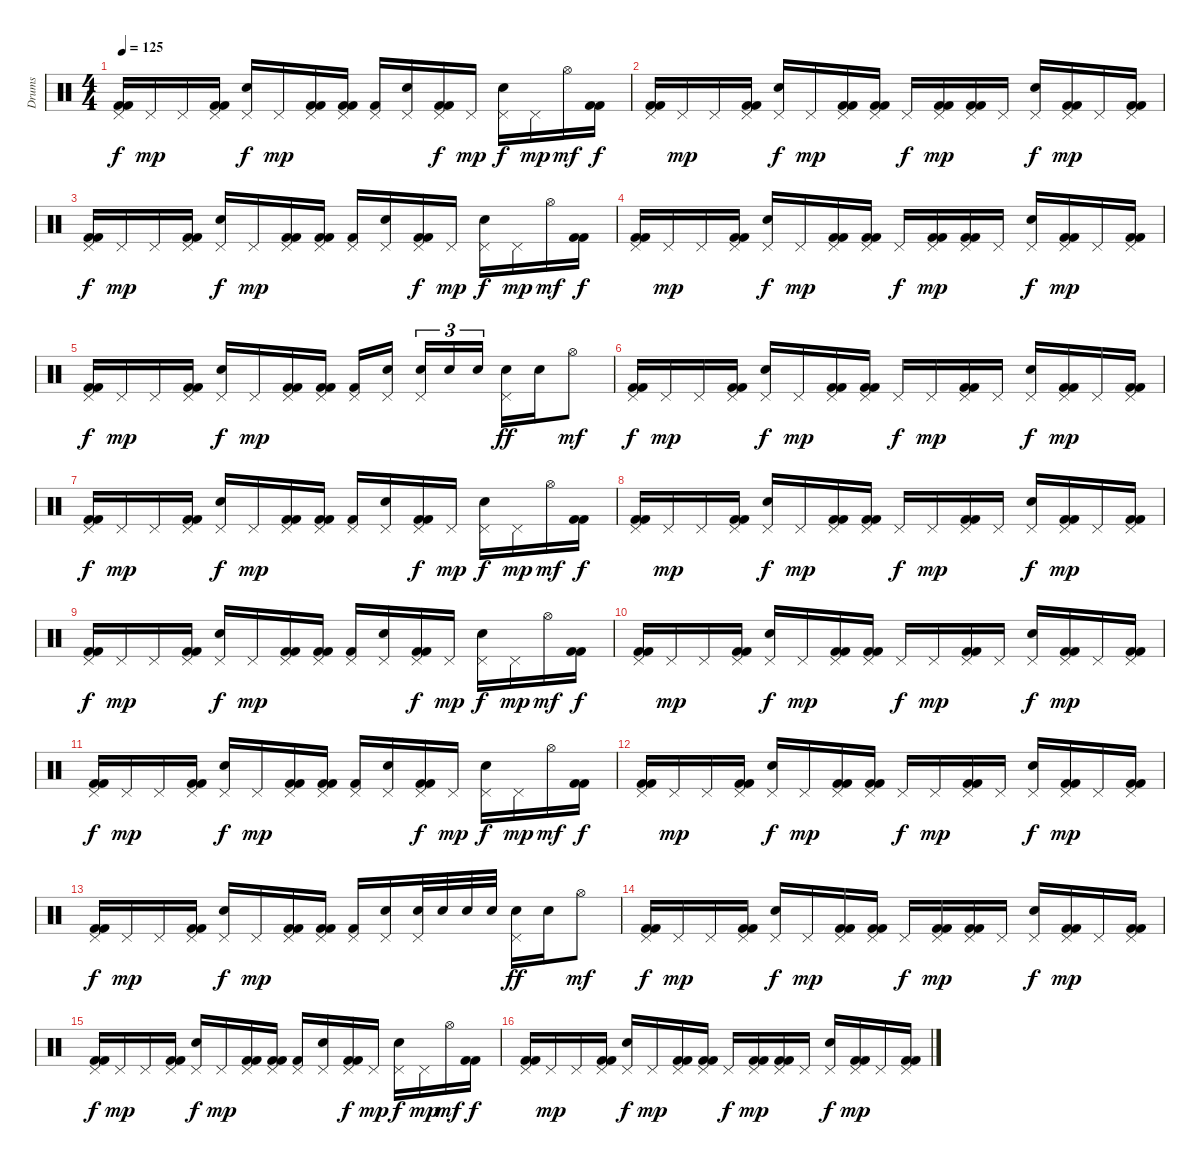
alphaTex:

\track ("Drums" "Drums") {instrument percussion}
\staff {score}
\articulation defaults
\ts (4 4)
\tempo 125
\clef neutral
\ks c
("Pedal Hi-Hat (hit)" "Kick (hit) 2" "Kick (hit) 2").16{dy f} "Pedal Hi-Hat (hit)".16{dy mp} "Pedal Hi-Hat (hit)".16 ("Pedal Hi-Hat (hit)" "Kick (hit) 2" "Kick (hit) 2").16 ("Pedal Hi-Hat (hit)" "Electric Snare (hit)").16{dy f} "Pedal Hi-Hat (hit)".16{dy mp} ("Pedal Hi-Hat (hit)" "Kick (hit) 2" "Kick (hit) 2").16 ("Pedal Hi-Hat (hit)" "Kick (hit) 2" "Kick (hit) 2").16 ("Pedal Hi-Hat (hit)" "Kick (hit) 2").16 ("Pedal Hi-Hat (hit)" "Electric Snare (hit)").16 ("Pedal Hi-Hat (hit)" "Kick (hit) 2" "Kick (hit) 2").16{dy f} "Pedal Hi-Hat (hit)".16{dy mp} ("Pedal Hi-Hat (hit)" "Electric Snare (hit)").16{dy f} "Pedal Hi-Hat (hit)".16{dy mp} "Hi-Hat (open)".16{dy mf} ("Kick (hit) 2" "Kick (hit) 2").16{dy f} |
("Pedal Hi-Hat (hit)" "Kick (hit) 2" "Kick (hit) 2").16 "Pedal Hi-Hat (hit)".16{dy mp} "Pedal Hi-Hat (hit)".16 ("Pedal Hi-Hat (hit)" "Kick (hit) 2" "Kick (hit) 2").16 ("Pedal Hi-Hat (hit)" "Electric Snare (hit)").16{dy f} "Pedal Hi-Hat (hit)".16{dy mp} ("Pedal Hi-Hat (hit)" "Kick (hit) 2" "Kick (hit) 2").16 ("Pedal Hi-Hat (hit)" "Kick (hit) 2" "Kick (hit) 2").16 "Pedal Hi-Hat (hit)".16{dy f} ("Pedal Hi-Hat (hit)" "Kick (hit) 2" "Kick (hit) 2").16{dy mp} ("Pedal Hi-Hat (hit)" "Kick (hit) 2" "Kick (hit) 2").16 "Pedal Hi-Hat (hit)".16 ("Pedal Hi-Hat (hit)" "Electric Snare (hit)").16{dy f} ("Pedal Hi-Hat (hit)" "Kick (hit) 2" "Kick (hit) 2").16{dy mp} "Pedal Hi-Hat (hit)".16 ("Pedal Hi-Hat (hit)" "Kick (hit) 2" "Kick (hit) 2").16 |
("Pedal Hi-Hat (hit)" "Kick (hit) 2" "Kick (hit) 2").16{dy f} "Pedal Hi-Hat (hit)".16{dy mp} "Pedal Hi-Hat (hit)".16 ("Pedal Hi-Hat (hit)" "Kick (hit) 2" "Kick (hit) 2").16 ("Pedal Hi-Hat (hit)" "Electric Snare (hit)").16{dy f} "Pedal Hi-Hat (hit)".16{dy mp} ("Pedal Hi-Hat (hit)" "Kick (hit) 2" "Kick (hit) 2").16 ("Pedal Hi-Hat (hit)" "Kick (hit) 2" "Kick (hit) 2").16 ("Pedal Hi-Hat (hit)" "Kick (hit) 2").16 ("Pedal Hi-Hat (hit)" "Electric Snare (hit)").16 ("Pedal Hi-Hat (hit)" "Kick (hit) 2" "Kick (hit) 2").16{dy f} "Pedal Hi-Hat (hit)".16{dy mp} ("Pedal Hi-Hat (hit)" "Electric Snare (hit)").16{dy f} "Pedal Hi-Hat (hit)".16{dy mp} "Hi-Hat (open)".16{dy mf} ("Kick (hit) 2" "Kick (hit) 2").16{dy f} |
("Pedal Hi-Hat (hit)" "Kick (hit) 2" "Kick (hit) 2").16 "Pedal Hi-Hat (hit)".16{dy mp} "Pedal Hi-Hat (hit)".16 ("Pedal Hi-Hat (hit)" "Kick (hit) 2" "Kick (hit) 2").16 ("Pedal Hi-Hat (hit)" "Electric Snare (hit)").16{dy f} "Pedal Hi-Hat (hit)".16{dy mp} ("Pedal Hi-Hat (hit)" "Kick (hit) 2" "Kick (hit) 2").16 ("Pedal Hi-Hat (hit)" "Kick (hit) 2" "Kick (hit) 2").16 "Pedal Hi-Hat (hit)".16{dy f} ("Pedal Hi-Hat (hit)" "Kick (hit) 2" "Kick (hit) 2").16{dy mp} ("Pedal Hi-Hat (hit)" "Kick (hit) 2" "Kick (hit) 2").16 "Pedal Hi-Hat (hit)".16 ("Pedal Hi-Hat (hit)" "Electric Snare (hit)").16{dy f} ("Pedal Hi-Hat (hit)" "Kick (hit) 2" "Kick (hit) 2").16{dy mp} "Pedal Hi-Hat (hit)".16 ("Pedal Hi-Hat (hit)" "Kick (hit) 2" "Kick (hit) 2").16 |
("Pedal Hi-Hat (hit)" "Kick (hit) 2" "Kick (hit) 2").16{dy f} "Pedal Hi-Hat (hit)".16{dy mp} "Pedal Hi-Hat (hit)".16 ("Pedal Hi-Hat (hit)" "Kick (hit) 2" "Kick (hit) 2").16 ("Pedal Hi-Hat (hit)" "Electric Snare (hit)").16{dy f} "Pedal Hi-Hat (hit)".16{dy mp} ("Pedal Hi-Hat (hit)" "Kick (hit) 2" "Kick (hit) 2").16 ("Pedal Hi-Hat (hit)" "Kick (hit) 2" "Kick (hit) 2").16 ("Pedal Hi-Hat (hit)" "Kick (hit) 2").16 ("Pedal Hi-Hat (hit)" "Electric Snare (hit)").16{beam splitsecondary} ("Pedal Hi-Hat (hit)" "Electric Snare (hit)").16{tu (3 2)} "Electric Snare (hit)".16{tu (3 2)} "Electric Snare (hit)".16{tu (3 2)} ("Pedal Hi-Hat (hit)" "Electric Snare (hit)").16{dy ff} "Electric Snare (hit)".16 "Hi-Hat (open)".8{dy mf} |
("Pedal Hi-Hat (hit)" "Kick (hit) 2" "Kick (hit) 2").16{dy f} "Pedal Hi-Hat (hit)".16{dy mp} "Pedal Hi-Hat (hit)".16 ("Pedal Hi-Hat (hit)" "Kick (hit) 2" "Kick (hit) 2").16 ("Pedal Hi-Hat (hit)" "Electric Snare (hit)").16{dy f} "Pedal Hi-Hat (hit)".16{dy mp} ("Pedal Hi-Hat (hit)" "Kick (hit) 2" "Kick (hit) 2").16 ("Pedal Hi-Hat (hit)" "Kick (hit) 2" "Kick (hit) 2").16 "Pedal Hi-Hat (hit)".16{dy f} "Pedal Hi-Hat (hit)".16{dy mp} ("Pedal Hi-Hat (hit)" "Kick (hit) 2" "Kick (hit) 2").16 "Pedal Hi-Hat (hit)".16 ("Pedal Hi-Hat (hit)" "Electric Snare (hit)").16{dy f} ("Pedal Hi-Hat (hit)" "Kick (hit) 2" "Kick (hit) 2").16{dy mp} "Pedal Hi-Hat (hit)".16 ("Pedal Hi-Hat (hit)" "Kick (hit) 2" "Kick (hit) 2").16 |
("Pedal Hi-Hat (hit)" "Kick (hit) 2" "Kick (hit) 2").16{dy f} "Pedal Hi-Hat (hit)".16{dy mp} "Pedal Hi-Hat (hit)".16 ("Pedal Hi-Hat (hit)" "Kick (hit) 2" "Kick (hit) 2").16 ("Pedal Hi-Hat (hit)" "Electric Snare (hit)").16{dy f} "Pedal Hi-Hat (hit)".16{dy mp} ("Pedal Hi-Hat (hit)" "Kick (hit) 2" "Kick (hit) 2").16 ("Pedal Hi-Hat (hit)" "Kick (hit) 2" "Kick (hit) 2").16 ("Pedal Hi-Hat (hit)" "Kick (hit) 2").16 ("Pedal Hi-Hat (hit)" "Electric Snare (hit)").16 ("Pedal Hi-Hat (hit)" "Kick (hit) 2" "Kick (hit) 2").16{dy f} "Pedal Hi-Hat (hit)".16{dy mp} ("Pedal Hi-Hat (hit)" "Electric Snare (hit)").16{dy f} "Pedal Hi-Hat (hit)".16{dy mp} "Hi-Hat (open)".16{dy mf} ("Kick (hit) 2" "Kick (hit) 2").16{dy f} |
("Pedal Hi-Hat (hit)" "Kick (hit) 2" "Kick (hit) 2").16 "Pedal Hi-Hat (hit)".16{dy mp} "Pedal Hi-Hat (hit)".16 ("Pedal Hi-Hat (hit)" "Kick (hit) 2" "Kick (hit) 2").16 ("Pedal Hi-Hat (hit)" "Electric Snare (hit)").16{dy f} "Pedal Hi-Hat (hit)".16{dy mp} ("Pedal Hi-Hat (hit)" "Kick (hit) 2" "Kick (hit) 2").16 ("Pedal Hi-Hat (hit)" "Kick (hit) 2" "Kick (hit) 2").16 "Pedal Hi-Hat (hit)".16{dy f} "Pedal Hi-Hat (hit)".16{dy mp} ("Pedal Hi-Hat (hit)" "Kick (hit) 2" "Kick (hit) 2").16 "Pedal Hi-Hat (hit)".16 ("Pedal Hi-Hat (hit)" "Electric Snare (hit)").16{dy f} ("Pedal Hi-Hat (hit)" "Kick (hit) 2" "Kick (hit) 2").16{dy mp} "Pedal Hi-Hat (hit)".16 ("Pedal Hi-Hat (hit)" "Kick (hit) 2" "Kick (hit) 2").16 |
("Pedal Hi-Hat (hit)" "Kick (hit) 2" "Kick (hit) 2").16{dy f} "Pedal Hi-Hat (hit)".16{dy mp} "Pedal Hi-Hat (hit)".16 ("Pedal Hi-Hat (hit)" "Kick (hit) 2" "Kick (hit) 2").16 ("Pedal Hi-Hat (hit)" "Electric Snare (hit)").16{dy f} "Pedal Hi-Hat (hit)".16{dy mp} ("Pedal Hi-Hat (hit)" "Kick (hit) 2" "Kick (hit) 2").16 ("Pedal Hi-Hat (hit)" "Kick (hit) 2" "Kick (hit) 2").16 ("Pedal Hi-Hat (hit)" "Kick (hit) 2").16 ("Pedal Hi-Hat (hit)" "Electric Snare (hit)").16 ("Pedal Hi-Hat (hit)" "Kick (hit) 2" "Kick (hit) 2").16{dy f} "Pedal Hi-Hat (hit)".16{dy mp} ("Pedal Hi-Hat (hit)" "Electric Snare (hit)").16{dy f} "Pedal Hi-Hat (hit)".16{dy mp} "Hi-Hat (open)".16{dy mf} ("Kick (hit) 2" "Kick (hit) 2").16{dy f} |
("Pedal Hi-Hat (hit)" "Kick (hit) 2" "Kick (hit) 2").16 "Pedal Hi-Hat (hit)".16{dy mp} "Pedal Hi-Hat (hit)".16 ("Pedal Hi-Hat (hit)" "Kick (hit) 2" "Kick (hit) 2").16 ("Pedal Hi-Hat (hit)" "Electric Snare (hit)").16{dy f} "Pedal Hi-Hat (hit)".16{dy mp} ("Pedal Hi-Hat (hit)" "Kick (hit) 2" "Kick (hit) 2").16 ("Pedal Hi-Hat (hit)" "Kick (hit) 2" "Kick (hit) 2").16 "Pedal Hi-Hat (hit)".16{dy f} "Pedal Hi-Hat (hit)".16{dy mp} ("Pedal Hi-Hat (hit)" "Kick (hit) 2" "Kick (hit) 2").16 "Pedal Hi-Hat (hit)".16 ("Pedal Hi-Hat (hit)" "Electric Snare (hit)").16{dy f} ("Pedal Hi-Hat (hit)" "Kick (hit) 2" "Kick (hit) 2").16{dy mp} "Pedal Hi-Hat (hit)".16 ("Pedal Hi-Hat (hit)" "Kick (hit) 2" "Kick (hit) 2").16 |
("Pedal Hi-Hat (hit)" "Kick (hit) 2" "Kick (hit) 2").16{dy f} "Pedal Hi-Hat (hit)".16{dy mp} "Pedal Hi-Hat (hit)".16 ("Pedal Hi-Hat (hit)" "Kick (hit) 2" "Kick (hit) 2").16 ("Pedal Hi-Hat (hit)" "Electric Snare (hit)").16{dy f} "Pedal Hi-Hat (hit)".16{dy mp} ("Pedal Hi-Hat (hit)" "Kick (hit) 2" "Kick (hit) 2").16 ("Pedal Hi-Hat (hit)" "Kick (hit) 2" "Kick (hit) 2").16 ("Pedal Hi-Hat (hit)" "Kick (hit) 2").16 ("Pedal Hi-Hat (hit)" "Electric Snare (hit)").16 ("Pedal Hi-Hat (hit)" "Kick (hit) 2" "Kick (hit) 2").16{dy f} "Pedal Hi-Hat (hit)".16{dy mp} ("Pedal Hi-Hat (hit)" "Electric Snare (hit)").16{dy f} "Pedal Hi-Hat (hit)".16{dy mp} "Hi-Hat (open)".16{dy mf} ("Kick (hit) 2" "Kick (hit) 2").16{dy f} |
("Pedal Hi-Hat (hit)" "Kick (hit) 2" "Kick (hit) 2").16 "Pedal Hi-Hat (hit)".16{dy mp} "Pedal Hi-Hat (hit)".16 ("Pedal Hi-Hat (hit)" "Kick (hit) 2" "Kick (hit) 2").16 ("Pedal Hi-Hat (hit)" "Electric Snare (hit)").16{dy f} "Pedal Hi-Hat (hit)".16{dy mp} ("Pedal Hi-Hat (hit)" "Kick (hit) 2" "Kick (hit) 2").16 ("Pedal Hi-Hat (hit)" "Kick (hit) 2" "Kick (hit) 2").16 "Pedal Hi-Hat (hit)".16{dy f} "Pedal Hi-Hat (hit)".16{dy mp} ("Pedal Hi-Hat (hit)" "Kick (hit) 2" "Kick (hit) 2").16 "Pedal Hi-Hat (hit)".16 ("Pedal Hi-Hat (hit)" "Electric Snare (hit)").16{dy f} ("Pedal Hi-Hat (hit)" "Kick (hit) 2" "Kick (hit) 2").16{dy mp} "Pedal Hi-Hat (hit)".16 ("Pedal Hi-Hat (hit)" "Kick (hit) 2" "Kick (hit) 2").16 |
("Pedal Hi-Hat (hit)" "Kick (hit) 2" "Kick (hit) 2").16{dy f} "Pedal Hi-Hat (hit)".16{dy mp} "Pedal Hi-Hat (hit)".16 ("Pedal Hi-Hat (hit)" "Kick (hit) 2" "Kick (hit) 2").16 ("Pedal Hi-Hat (hit)" "Electric Snare (hit)").16{dy f} "Pedal Hi-Hat (hit)".16{dy mp} ("Pedal Hi-Hat (hit)" "Kick (hit) 2" "Kick (hit) 2").16 ("Pedal Hi-Hat (hit)" "Kick (hit) 2" "Kick (hit) 2").16 ("Pedal Hi-Hat (hit)" "Kick (hit) 2").16 ("Pedal Hi-Hat (hit)" "Electric Snare (hit)").16 ("Pedal Hi-Hat (hit)" "Electric Snare (hit)").32 "Electric Snare (hit)".32 "Electric Snare (hit)".32 "Electric Snare (hit)".32 ("Pedal Hi-Hat (hit)" "Electric Snare (hit)").16{dy ff} "Electric Snare (hit)".16 "Hi-Hat (open)".8{dy mf} |
("Pedal Hi-Hat (hit)" "Kick (hit) 2" "Kick (hit) 2").16{dy f} "Pedal Hi-Hat (hit)".16{dy mp} "Pedal Hi-Hat (hit)".16 ("Pedal Hi-Hat (hit)" "Kick (hit) 2" "Kick (hit) 2").16 ("Pedal Hi-Hat (hit)" "Electric Snare (hit)").16{dy f} "Pedal Hi-Hat (hit)".16{dy mp} ("Pedal Hi-Hat (hit)" "Kick (hit) 2" "Kick (hit) 2").16 ("Pedal Hi-Hat (hit)" "Kick (hit) 2" "Kick (hit) 2").16 "Pedal Hi-Hat (hit)".16{dy f} ("Pedal Hi-Hat (hit)" "Kick (hit) 2" "Kick (hit) 2").16{dy mp} ("Pedal Hi-Hat (hit)" "Kick (hit) 2" "Kick (hit) 2").16 "Pedal Hi-Hat (hit)".16 ("Pedal Hi-Hat (hit)" "Electric Snare (hit)").16{dy f} ("Pedal Hi-Hat (hit)" "Kick (hit) 2" "Kick (hit) 2").16{dy mp} "Pedal Hi-Hat (hit)".16 ("Pedal Hi-Hat (hit)" "Kick (hit) 2" "Kick (hit) 2").16 |
("Pedal Hi-Hat (hit)" "Kick (hit) 2" "Kick (hit) 2").16{dy f} "Pedal Hi-Hat (hit)".16{dy mp} "Pedal Hi-Hat (hit)".16 ("Pedal Hi-Hat (hit)" "Kick (hit) 2" "Kick (hit) 2").16 ("Pedal Hi-Hat (hit)" "Electric Snare (hit)").16{dy f} "Pedal Hi-Hat (hit)".16{dy mp} ("Pedal Hi-Hat (hit)" "Kick (hit) 2" "Kick (hit) 2").16 ("Pedal Hi-Hat (hit)" "Kick (hit) 2" "Kick (hit) 2").16 ("Pedal Hi-Hat (hit)" "Kick (hit) 2").16 ("Pedal Hi-Hat (hit)" "Electric Snare (hit)").16 ("Pedal Hi-Hat (hit)" "Kick (hit) 2" "Kick (hit) 2").16{dy f} "Pedal Hi-Hat (hit)".16{dy mp} ("Pedal Hi-Hat (hit)" "Electric Snare (hit)").16{dy f} "Pedal Hi-Hat (hit)".16{dy mp} "Hi-Hat (open)".16{dy mf} ("Kick (hit) 2" "Kick (hit) 2").16{dy f} |
("Pedal Hi-Hat (hit)" "Kick (hit) 2" "Kick (hit) 2").16 "Pedal Hi-Hat (hit)".16{dy mp} "Pedal Hi-Hat (hit)".16 ("Pedal Hi-Hat (hit)" "Kick (hit) 2" "Kick (hit) 2").16 ("Pedal Hi-Hat (hit)" "Electric Snare (hit)").16{dy f} "Pedal Hi-Hat (hit)".16{dy mp} ("Pedal Hi-Hat (hit)" "Kick (hit) 2" "Kick (hit) 2").16 ("Pedal Hi-Hat (hit)" "Kick (hit) 2" "Kick (hit) 2").16 "Pedal Hi-Hat (hit)".16{dy f} ("Pedal Hi-Hat (hit)" "Kick (hit) 2" "Kick (hit) 2").16{dy mp} ("Pedal Hi-Hat (hit)" "Kick (hit) 2" "Kick (hit) 2").16 "Pedal Hi-Hat (hit)".16 ("Pedal Hi-Hat (hit)" "Electric Snare (hit)").16{dy f} ("Pedal Hi-Hat (hit)" "Kick (hit) 2" "Kick (hit) 2").16{dy mp} "Pedal Hi-Hat (hit)".16 ("Pedal Hi-Hat (hit)" "Kick (hit) 2" "Kick (hit) 2").16
